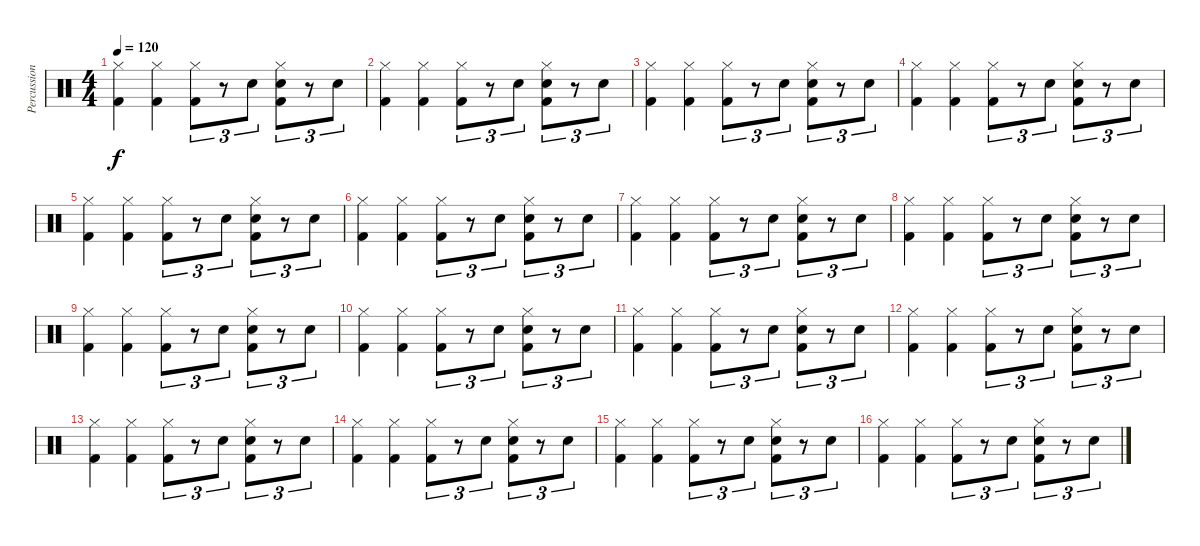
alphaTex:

\track ("Percussions" "Percussion") {instrument percussion}
\staff {score}
\articulation defaults
\ts (4 4)
\tempo 120
\clef neutral
\ks c
("Hi-Hat (closed)" "Kick (hit) 2").4{dy f} ("Hi-Hat (closed)" "Kick (hit) 2").4 ("Hi-Hat (closed)" "Kick (hit) 2").8{tu (3 2)} r.8{tu (3 2)} "Electric Snare (hit)".8{tu (3 2)} ("Hi-Hat (closed)" "Electric Snare (hit)" "Kick (hit) 2").8{tu (3 2)} r.8{tu (3 2)} "Electric Snare (hit)".8{tu (3 2)} |
("Hi-Hat (closed)" "Kick (hit) 2").4 ("Hi-Hat (closed)" "Kick (hit) 2").4 ("Hi-Hat (closed)" "Kick (hit) 2").8{tu (3 2)} r.8{tu (3 2)} "Electric Snare (hit)".8{tu (3 2)} ("Hi-Hat (closed)" "Electric Snare (hit)" "Kick (hit) 2").8{tu (3 2)} r.8{tu (3 2)} "Electric Snare (hit)".8{tu (3 2)} |
("Hi-Hat (closed)" "Kick (hit) 2").4 ("Hi-Hat (closed)" "Kick (hit) 2").4 ("Hi-Hat (closed)" "Kick (hit) 2").8{tu (3 2)} r.8{tu (3 2)} "Electric Snare (hit)".8{tu (3 2)} ("Hi-Hat (closed)" "Electric Snare (hit)" "Kick (hit) 2").8{tu (3 2)} r.8{tu (3 2)} "Electric Snare (hit)".8{tu (3 2)} |
("Hi-Hat (closed)" "Kick (hit) 2").4 ("Hi-Hat (closed)" "Kick (hit) 2").4 ("Hi-Hat (closed)" "Kick (hit) 2").8{tu (3 2)} r.8{tu (3 2)} "Electric Snare (hit)".8{tu (3 2)} ("Hi-Hat (closed)" "Electric Snare (hit)" "Kick (hit) 2").8{tu (3 2)} r.8{tu (3 2)} "Electric Snare (hit)".8{tu (3 2)} |
("Hi-Hat (closed)" "Kick (hit) 2").4 ("Hi-Hat (closed)" "Kick (hit) 2").4 ("Hi-Hat (closed)" "Kick (hit) 2").8{tu (3 2)} r.8{tu (3 2)} "Electric Snare (hit)".8{tu (3 2)} ("Hi-Hat (closed)" "Electric Snare (hit)" "Kick (hit) 2").8{tu (3 2)} r.8{tu (3 2)} "Electric Snare (hit)".8{tu (3 2)} |
("Hi-Hat (closed)" "Kick (hit) 2").4 ("Hi-Hat (closed)" "Kick (hit) 2").4 ("Hi-Hat (closed)" "Kick (hit) 2").8{tu (3 2)} r.8{tu (3 2)} "Electric Snare (hit)".8{tu (3 2)} ("Hi-Hat (closed)" "Electric Snare (hit)" "Kick (hit) 2").8{tu (3 2)} r.8{tu (3 2)} "Electric Snare (hit)".8{tu (3 2)} |
("Hi-Hat (closed)" "Kick (hit) 2").4 ("Hi-Hat (closed)" "Kick (hit) 2").4 ("Hi-Hat (closed)" "Kick (hit) 2").8{tu (3 2)} r.8{tu (3 2)} "Electric Snare (hit)".8{tu (3 2)} ("Hi-Hat (closed)" "Electric Snare (hit)" "Kick (hit) 2").8{tu (3 2)} r.8{tu (3 2)} "Electric Snare (hit)".8{tu (3 2)} |
("Hi-Hat (closed)" "Kick (hit) 2").4 ("Hi-Hat (closed)" "Kick (hit) 2").4 ("Hi-Hat (closed)" "Kick (hit) 2").8{tu (3 2)} r.8{tu (3 2)} "Electric Snare (hit)".8{tu (3 2)} ("Hi-Hat (closed)" "Electric Snare (hit)" "Kick (hit) 2").8{tu (3 2)} r.8{tu (3 2)} "Electric Snare (hit)".8{tu (3 2)} |
("Hi-Hat (closed)" "Kick (hit) 2").4 ("Hi-Hat (closed)" "Kick (hit) 2").4 ("Hi-Hat (closed)" "Kick (hit) 2").8{tu (3 2)} r.8{tu (3 2)} "Electric Snare (hit)".8{tu (3 2)} ("Hi-Hat (closed)" "Electric Snare (hit)" "Kick (hit) 2").8{tu (3 2)} r.8{tu (3 2)} "Electric Snare (hit)".8{tu (3 2)} |
("Hi-Hat (closed)" "Kick (hit) 2").4 ("Hi-Hat (closed)" "Kick (hit) 2").4 ("Hi-Hat (closed)" "Kick (hit) 2").8{tu (3 2)} r.8{tu (3 2)} "Electric Snare (hit)".8{tu (3 2)} ("Hi-Hat (closed)" "Electric Snare (hit)" "Kick (hit) 2").8{tu (3 2)} r.8{tu (3 2)} "Electric Snare (hit)".8{tu (3 2)} |
("Hi-Hat (closed)" "Kick (hit) 2").4 ("Hi-Hat (closed)" "Kick (hit) 2").4 ("Hi-Hat (closed)" "Kick (hit) 2").8{tu (3 2)} r.8{tu (3 2)} "Electric Snare (hit)".8{tu (3 2)} ("Hi-Hat (closed)" "Electric Snare (hit)" "Kick (hit) 2").8{tu (3 2)} r.8{tu (3 2)} "Electric Snare (hit)".8{tu (3 2)} |
("Hi-Hat (closed)" "Kick (hit) 2").4 ("Hi-Hat (closed)" "Kick (hit) 2").4 ("Hi-Hat (closed)" "Kick (hit) 2").8{tu (3 2)} r.8{tu (3 2)} "Electric Snare (hit)".8{tu (3 2)} ("Hi-Hat (closed)" "Electric Snare (hit)" "Kick (hit) 2").8{tu (3 2)} r.8{tu (3 2)} "Electric Snare (hit)".8{tu (3 2)} |
("Hi-Hat (closed)" "Kick (hit) 2").4 ("Hi-Hat (closed)" "Kick (hit) 2").4 ("Hi-Hat (closed)" "Kick (hit) 2").8{tu (3 2)} r.8{tu (3 2)} "Electric Snare (hit)".8{tu (3 2)} ("Hi-Hat (closed)" "Electric Snare (hit)" "Kick (hit) 2").8{tu (3 2)} r.8{tu (3 2)} "Electric Snare (hit)".8{tu (3 2)} |
("Hi-Hat (closed)" "Kick (hit) 2").4 ("Hi-Hat (closed)" "Kick (hit) 2").4 ("Hi-Hat (closed)" "Kick (hit) 2").8{tu (3 2)} r.8{tu (3 2)} "Electric Snare (hit)".8{tu (3 2)} ("Hi-Hat (closed)" "Electric Snare (hit)" "Kick (hit) 2").8{tu (3 2)} r.8{tu (3 2)} "Electric Snare (hit)".8{tu (3 2)} |
("Hi-Hat (closed)" "Kick (hit) 2").4 ("Hi-Hat (closed)" "Kick (hit) 2").4 ("Hi-Hat (closed)" "Kick (hit) 2").8{tu (3 2)} r.8{tu (3 2)} "Electric Snare (hit)".8{tu (3 2)} ("Hi-Hat (closed)" "Electric Snare (hit)" "Kick (hit) 2").8{tu (3 2)} r.8{tu (3 2)} "Electric Snare (hit)".8{tu (3 2)} |
("Hi-Hat (closed)" "Kick (hit) 2").4 ("Hi-Hat (closed)" "Kick (hit) 2").4 ("Hi-Hat (closed)" "Kick (hit) 2").8{tu (3 2)} r.8{tu (3 2)} "Electric Snare (hit)".8{tu (3 2)} ("Hi-Hat (closed)" "Electric Snare (hit)" "Kick (hit) 2").8{tu (3 2)} r.8{tu (3 2)} "Electric Snare (hit)".8{tu (3 2)}
